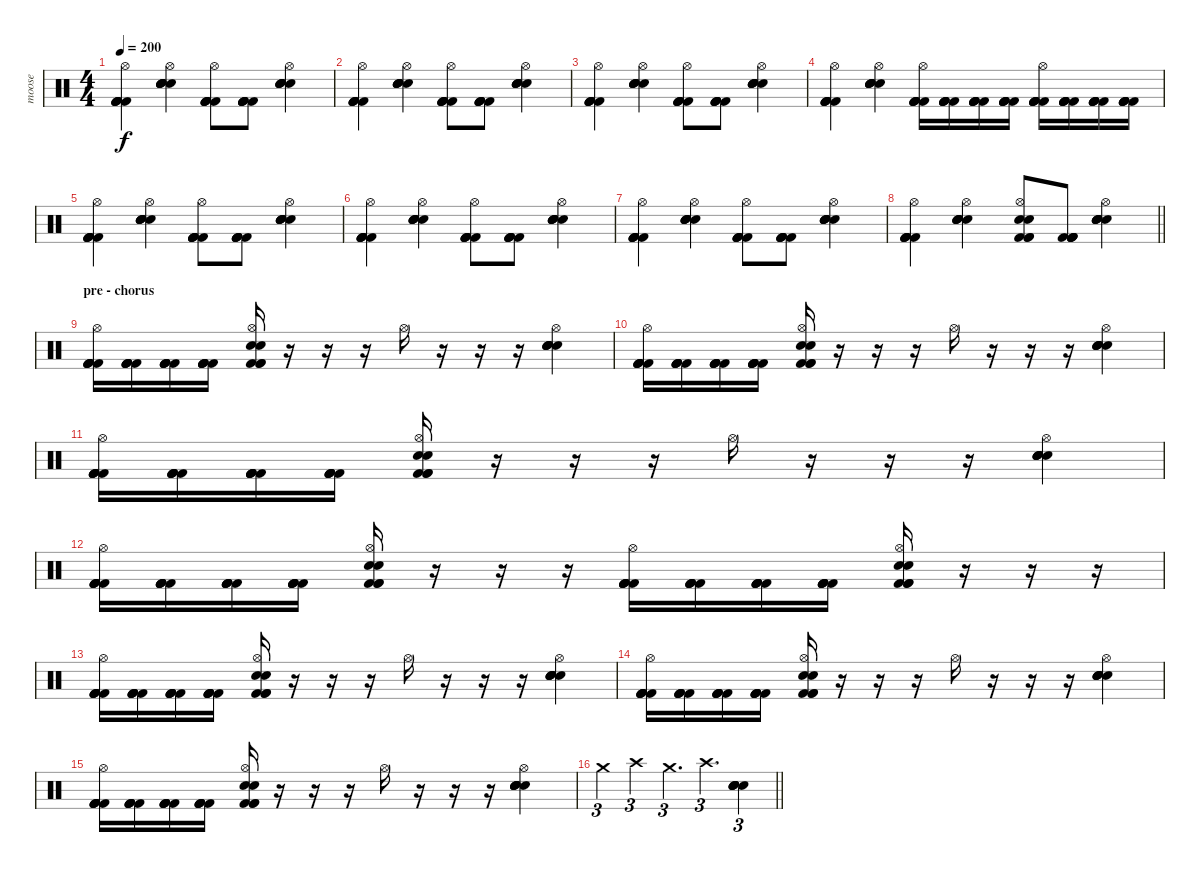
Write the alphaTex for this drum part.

\track ("moose" "moose") {instrument percussion}
\staff {score}
\articulation defaults
\ts (4 4)
\tempo 200
\clef neutral
\ks c
("Kick (hit) 2" "Kick (hit) 2" "Kick (hit) 2" "Kick (hit) 2" "Kick (hit) 2" "Hi-Hat (open)").4{dy f} ("Electric Snare (hit)" "Electric Snare (hit)" "Electric Snare (hit)" "Electric Snare (hit)" "Electric Snare (hit)" "Hi-Hat (open)").4 ("Kick (hit) 2" "Kick (hit) 2" "Kick (hit) 2" "Kick (hit) 2" "Kick (hit) 2" "Hi-Hat (open)").8 ("Kick (hit) 2" "Kick (hit) 2" "Kick (hit) 2" "Kick (hit) 2" "Kick (hit) 2").8 ("Electric Snare (hit)" "Electric Snare (hit)" "Electric Snare (hit)" "Electric Snare (hit)" "Electric Snare (hit)" "Hi-Hat (open)").4 |
("Kick (hit) 2" "Kick (hit) 2" "Kick (hit) 2" "Kick (hit) 2" "Kick (hit) 2" "Hi-Hat (open)").4 ("Electric Snare (hit)" "Electric Snare (hit)" "Electric Snare (hit)" "Electric Snare (hit)" "Electric Snare (hit)" "Hi-Hat (open)").4 ("Kick (hit) 2" "Kick (hit) 2" "Kick (hit) 2" "Kick (hit) 2" "Kick (hit) 2" "Hi-Hat (open)").8 ("Kick (hit) 2" "Kick (hit) 2" "Kick (hit) 2" "Kick (hit) 2" "Kick (hit) 2").8 ("Electric Snare (hit)" "Electric Snare (hit)" "Electric Snare (hit)" "Electric Snare (hit)" "Electric Snare (hit)" "Hi-Hat (open)").4 |
("Kick (hit) 2" "Kick (hit) 2" "Kick (hit) 2" "Kick (hit) 2" "Kick (hit) 2" "Hi-Hat (open)").4 ("Electric Snare (hit)" "Electric Snare (hit)" "Electric Snare (hit)" "Electric Snare (hit)" "Electric Snare (hit)" "Hi-Hat (open)").4 ("Kick (hit) 2" "Kick (hit) 2" "Kick (hit) 2" "Kick (hit) 2" "Kick (hit) 2" "Hi-Hat (open)").8 ("Kick (hit) 2" "Kick (hit) 2" "Kick (hit) 2" "Kick (hit) 2" "Kick (hit) 2").8 ("Electric Snare (hit)" "Electric Snare (hit)" "Electric Snare (hit)" "Electric Snare (hit)" "Electric Snare (hit)" "Hi-Hat (open)").4 |
("Kick (hit) 2" "Kick (hit) 2" "Kick (hit) 2" "Kick (hit) 2" "Kick (hit) 2" "Hi-Hat (open)").4 ("Electric Snare (hit)" "Electric Snare (hit)" "Electric Snare (hit)" "Electric Snare (hit)" "Electric Snare (hit)" "Hi-Hat (open)").4 ("Kick (hit) 2" "Kick (hit) 2" "Kick (hit) 2" "Kick (hit) 2" "Kick (hit) 2" "Hi-Hat (open)").16 ("Kick (hit) 2" "Kick (hit) 2" "Kick (hit) 2" "Kick (hit) 2" "Kick (hit) 2").16 ("Kick (hit) 2" "Kick (hit) 2" "Kick (hit) 2" "Kick (hit) 2" "Kick (hit) 2").16 ("Kick (hit) 2" "Kick (hit) 2" "Kick (hit) 2" "Kick (hit) 2" "Kick (hit) 2").16 ("Kick (hit) 2" "Kick (hit) 2" "Kick (hit) 2" "Kick (hit) 2" "Kick (hit) 2" "Hi-Hat (open)").16 ("Kick (hit) 2" "Kick (hit) 2" "Kick (hit) 2" "Kick (hit) 2" "Kick (hit) 2").16 ("Kick (hit) 2" "Kick (hit) 2" "Kick (hit) 2" "Kick (hit) 2" "Kick (hit) 2").16 ("Kick (hit) 2" "Kick (hit) 2" "Kick (hit) 2" "Kick (hit) 2" "Kick (hit) 2").16 |
("Kick (hit) 2" "Kick (hit) 2" "Kick (hit) 2" "Kick (hit) 2" "Kick (hit) 2" "Hi-Hat (open)").4 ("Electric Snare (hit)" "Electric Snare (hit)" "Electric Snare (hit)" "Electric Snare (hit)" "Electric Snare (hit)" "Hi-Hat (open)").4 ("Kick (hit) 2" "Kick (hit) 2" "Kick (hit) 2" "Kick (hit) 2" "Kick (hit) 2" "Hi-Hat (open)").8 ("Kick (hit) 2" "Kick (hit) 2" "Kick (hit) 2" "Kick (hit) 2" "Kick (hit) 2").8 ("Electric Snare (hit)" "Electric Snare (hit)" "Electric Snare (hit)" "Electric Snare (hit)" "Electric Snare (hit)" "Hi-Hat (open)").4 |
("Kick (hit) 2" "Kick (hit) 2" "Kick (hit) 2" "Kick (hit) 2" "Kick (hit) 2" "Hi-Hat (open)").4 ("Electric Snare (hit)" "Electric Snare (hit)" "Electric Snare (hit)" "Electric Snare (hit)" "Electric Snare (hit)" "Hi-Hat (open)").4 ("Kick (hit) 2" "Kick (hit) 2" "Kick (hit) 2" "Kick (hit) 2" "Kick (hit) 2" "Hi-Hat (open)").8 ("Kick (hit) 2" "Kick (hit) 2" "Kick (hit) 2" "Kick (hit) 2" "Kick (hit) 2").8 ("Electric Snare (hit)" "Electric Snare (hit)" "Electric Snare (hit)" "Electric Snare (hit)" "Electric Snare (hit)" "Hi-Hat (open)").4 |
("Kick (hit) 2" "Kick (hit) 2" "Kick (hit) 2" "Kick (hit) 2" "Kick (hit) 2" "Hi-Hat (open)").4 ("Electric Snare (hit)" "Electric Snare (hit)" "Electric Snare (hit)" "Electric Snare (hit)" "Electric Snare (hit)" "Hi-Hat (open)").4 ("Kick (hit) 2" "Kick (hit) 2" "Kick (hit) 2" "Kick (hit) 2" "Kick (hit) 2" "Hi-Hat (open)").8 ("Kick (hit) 2" "Kick (hit) 2" "Kick (hit) 2" "Kick (hit) 2" "Kick (hit) 2").8 ("Electric Snare (hit)" "Electric Snare (hit)" "Electric Snare (hit)" "Electric Snare (hit)" "Electric Snare (hit)" "Hi-Hat (open)").4 |
\barLineRight lightlight
("Kick (hit) 2" "Kick (hit) 2" "Kick (hit) 2" "Kick (hit) 2" "Kick (hit) 2" "Hi-Hat (open)").4 ("Electric Snare (hit)" "Electric Snare (hit)" "Electric Snare (hit)" "Electric Snare (hit)" "Electric Snare (hit)" "Hi-Hat (open)").4 ("Kick (hit) 2" "Kick (hit) 2" "Kick (hit) 2" "Electric Snare (hit)" "Electric Snare (hit)" "Hi-Hat (open)").8 ("Kick (hit) 2" "Kick (hit) 2" "Kick (hit) 2" "Kick (hit) 2" "Kick (hit) 2").8 ("Electric Snare (hit)" "Electric Snare (hit)" "Electric Snare (hit)" "Electric Snare (hit)" "Electric Snare (hit)" "Hi-Hat (open)").4 |
\section ("" "pre - chorus")
("Kick (hit) 2" "Kick (hit) 2" "Kick (hit) 2" "Kick (hit) 2" "Kick (hit) 2" "Hi-Hat (open)").16 ("Kick (hit) 2" "Kick (hit) 2" "Kick (hit) 2" "Kick (hit) 2" "Kick (hit) 2").16 ("Kick (hit) 2" "Kick (hit) 2" "Kick (hit) 2" "Kick (hit) 2" "Kick (hit) 2").16 ("Kick (hit) 2" "Kick (hit) 2" "Kick (hit) 2" "Kick (hit) 2" "Kick (hit) 2").16 ("Kick (hit) 2" "Kick (hit) 2" "Kick (hit) 2" "Electric Snare (hit)" "Electric Snare (hit)" "Hi-Hat (open)").16 r.16 r.16 r.16 "Hi-Hat (open)".16 r.16 r.16 r.16 ("Electric Snare (hit)" "Electric Snare (hit)" "Electric Snare (hit)" "Electric Snare (hit)" "Electric Snare (hit)" "Hi-Hat (open)").4 |
("Kick (hit) 2" "Kick (hit) 2" "Kick (hit) 2" "Kick (hit) 2" "Kick (hit) 2" "Hi-Hat (open)").16 ("Kick (hit) 2" "Kick (hit) 2" "Kick (hit) 2" "Kick (hit) 2" "Kick (hit) 2").16 ("Kick (hit) 2" "Kick (hit) 2" "Kick (hit) 2" "Kick (hit) 2" "Kick (hit) 2").16 ("Kick (hit) 2" "Kick (hit) 2" "Kick (hit) 2" "Kick (hit) 2" "Kick (hit) 2").16 ("Kick (hit) 2" "Kick (hit) 2" "Kick (hit) 2" "Electric Snare (hit)" "Electric Snare (hit)" "Hi-Hat (open)").16 r.16 r.16 r.16 "Hi-Hat (open)".16 r.16 r.16 r.16 ("Electric Snare (hit)" "Electric Snare (hit)" "Electric Snare (hit)" "Electric Snare (hit)" "Electric Snare (hit)" "Hi-Hat (open)").4 |
("Kick (hit) 2" "Kick (hit) 2" "Kick (hit) 2" "Kick (hit) 2" "Kick (hit) 2" "Hi-Hat (open)").16 ("Kick (hit) 2" "Kick (hit) 2" "Kick (hit) 2" "Kick (hit) 2" "Kick (hit) 2").16 ("Kick (hit) 2" "Kick (hit) 2" "Kick (hit) 2" "Kick (hit) 2" "Kick (hit) 2").16 ("Kick (hit) 2" "Kick (hit) 2" "Kick (hit) 2" "Kick (hit) 2" "Kick (hit) 2").16 ("Kick (hit) 2" "Kick (hit) 2" "Kick (hit) 2" "Electric Snare (hit)" "Electric Snare (hit)" "Hi-Hat (open)").16 r.16 r.16 r.16 "Hi-Hat (open)".16 r.16 r.16 r.16 ("Electric Snare (hit)" "Electric Snare (hit)" "Electric Snare (hit)" "Electric Snare (hit)" "Electric Snare (hit)" "Hi-Hat (open)").4 |
("Kick (hit) 2" "Kick (hit) 2" "Kick (hit) 2" "Kick (hit) 2" "Kick (hit) 2" "Hi-Hat (open)").16 ("Kick (hit) 2" "Kick (hit) 2" "Kick (hit) 2" "Kick (hit) 2" "Kick (hit) 2").16 ("Kick (hit) 2" "Kick (hit) 2" "Kick (hit) 2" "Kick (hit) 2" "Kick (hit) 2").16 ("Kick (hit) 2" "Kick (hit) 2" "Kick (hit) 2" "Kick (hit) 2" "Kick (hit) 2").16 ("Kick (hit) 2" "Kick (hit) 2" "Kick (hit) 2" "Electric Snare (hit)" "Electric Snare (hit)" "Hi-Hat (open)").16 r.16 r.16 r.16 ("Kick (hit) 2" "Kick (hit) 2" "Kick (hit) 2" "Kick (hit) 2" "Kick (hit) 2" "Hi-Hat (open)").16 ("Kick (hit) 2" "Kick (hit) 2" "Kick (hit) 2" "Kick (hit) 2" "Kick (hit) 2").16 ("Kick (hit) 2" "Kick (hit) 2" "Kick (hit) 2" "Kick (hit) 2" "Kick (hit) 2").16 ("Kick (hit) 2" "Kick (hit) 2" "Kick (hit) 2" "Kick (hit) 2" "Kick (hit) 2").16 ("Kick (hit) 2" "Kick (hit) 2" "Kick (hit) 2" "Electric Snare (hit)" "Electric Snare (hit)" "Hi-Hat (open)").16 r.16 r.16 r.16 |
("Kick (hit) 2" "Kick (hit) 2" "Kick (hit) 2" "Kick (hit) 2" "Kick (hit) 2" "Hi-Hat (open)").16 ("Kick (hit) 2" "Kick (hit) 2" "Kick (hit) 2" "Kick (hit) 2" "Kick (hit) 2").16 ("Kick (hit) 2" "Kick (hit) 2" "Kick (hit) 2" "Kick (hit) 2" "Kick (hit) 2").16 ("Kick (hit) 2" "Kick (hit) 2" "Kick (hit) 2" "Kick (hit) 2" "Kick (hit) 2").16 ("Kick (hit) 2" "Kick (hit) 2" "Kick (hit) 2" "Electric Snare (hit)" "Electric Snare (hit)" "Hi-Hat (open)").16 r.16 r.16 r.16 "Hi-Hat (open)".16 r.16 r.16 r.16 ("Electric Snare (hit)" "Electric Snare (hit)" "Electric Snare (hit)" "Electric Snare (hit)" "Electric Snare (hit)" "Hi-Hat (open)").4 |
("Kick (hit) 2" "Kick (hit) 2" "Kick (hit) 2" "Kick (hit) 2" "Kick (hit) 2" "Hi-Hat (open)").16 ("Kick (hit) 2" "Kick (hit) 2" "Kick (hit) 2" "Kick (hit) 2" "Kick (hit) 2").16 ("Kick (hit) 2" "Kick (hit) 2" "Kick (hit) 2" "Kick (hit) 2" "Kick (hit) 2").16 ("Kick (hit) 2" "Kick (hit) 2" "Kick (hit) 2" "Kick (hit) 2" "Kick (hit) 2").16 ("Kick (hit) 2" "Kick (hit) 2" "Kick (hit) 2" "Electric Snare (hit)" "Electric Snare (hit)" "Hi-Hat (open)").16 r.16 r.16 r.16 "Hi-Hat (open)".16 r.16 r.16 r.16 ("Electric Snare (hit)" "Electric Snare (hit)" "Electric Snare (hit)" "Electric Snare (hit)" "Electric Snare (hit)" "Hi-Hat (open)").4 |
("Kick (hit) 2" "Kick (hit) 2" "Kick (hit) 2" "Kick (hit) 2" "Kick (hit) 2" "Hi-Hat (open)").16 ("Kick (hit) 2" "Kick (hit) 2" "Kick (hit) 2" "Kick (hit) 2" "Kick (hit) 2").16 ("Kick (hit) 2" "Kick (hit) 2" "Kick (hit) 2" "Kick (hit) 2" "Kick (hit) 2").16 ("Kick (hit) 2" "Kick (hit) 2" "Kick (hit) 2" "Kick (hit) 2" "Kick (hit) 2").16 ("Kick (hit) 2" "Kick (hit) 2" "Kick (hit) 2" "Electric Snare (hit)" "Electric Snare (hit)" "Hi-Hat (open)").16 r.16 r.16 r.16 "Hi-Hat (open)".16 r.16 r.16 r.16 ("Electric Snare (hit)" "Electric Snare (hit)" "Electric Snare (hit)" "Electric Snare (hit)" "Electric Snare (hit)" "Hi-Hat (open)").4 |
\barLineRight lightlight "Crash medium (hit)".4{tu (3 2)} "Crash high (hit)".4{tu (3 2)} "Crash medium (hit)".4{d tu (3 2)} "Crash high (hit)".4{d tu (3 2)}
("Electric Snare (hit)" "Electric Snare (hit)" "Electric Snare (hit)" "Electric Snare (hit)" "Electric Snare (hit)").4{tu (3 2)}
